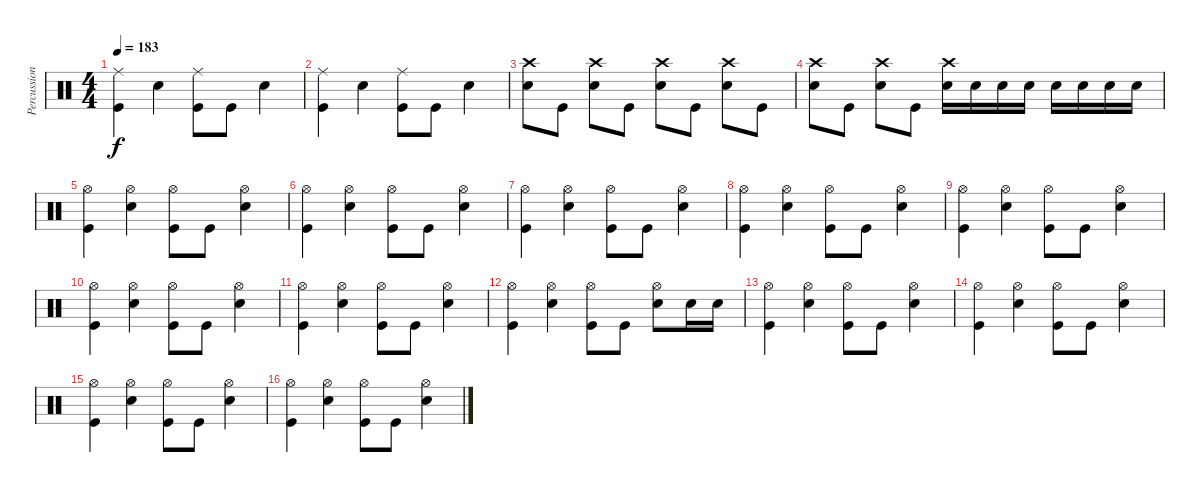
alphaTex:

\track ("Percussion" "Percussion") {instrument percussion}
\staff {score}
\articulation defaults
\ts (4 4)
\tempo 183
\clef neutral
\ks c
("Ride (middle)" "Kick (hit)").4{dy f} "Electric Snare (hit)".4 ("Ride (middle)" "Kick (hit)").8 "Kick (hit)".8 "Electric Snare (hit)".4 |
("Ride (middle)" "Kick (hit)").4 "Electric Snare (hit)".4 ("Ride (middle)" "Kick (hit)").8 "Kick (hit)".8 "Electric Snare (hit)".4 |
("Crash high (hit)" "Electric Snare (hit)").8 "Kick (hit)".8 ("Crash high (hit)" "Electric Snare (hit)").8 "Kick (hit)".8 ("Crash high (hit)" "Electric Snare (hit)").8 "Kick (hit)".8 ("Crash high (hit)" "Electric Snare (hit)").8 "Kick (hit)".8 |
("Crash high (hit)" "Electric Snare (hit)").8 "Kick (hit)".8 ("Crash high (hit)" "Electric Snare (hit)").8 "Kick (hit)".8 ("Crash high (hit)" "Electric Snare (hit)").16 "Electric Snare (hit)".16 "Electric Snare (hit)".16 "Electric Snare (hit)".16 "Electric Snare (hit)".16 "Electric Snare (hit)".16 "Electric Snare (hit)".16 "Electric Snare (hit)".16 |
("Hi-Hat (open)" "Kick (hit)").4 ("Hi-Hat (open)" "Electric Snare (hit)").4 ("Hi-Hat (open)" "Kick (hit)").8 "Kick (hit)".8 ("Hi-Hat (open)" "Electric Snare (hit)").4 |
("Hi-Hat (open)" "Kick (hit)").4 ("Hi-Hat (open)" "Electric Snare (hit)").4 ("Hi-Hat (open)" "Kick (hit)").8 "Kick (hit)".8 ("Hi-Hat (open)" "Electric Snare (hit)").4 |
("Hi-Hat (open)" "Kick (hit)").4 ("Hi-Hat (open)" "Electric Snare (hit)").4 ("Hi-Hat (open)" "Kick (hit)").8 "Kick (hit)".8 ("Hi-Hat (open)" "Electric Snare (hit)").4 |
("Hi-Hat (open)" "Kick (hit)").4 ("Hi-Hat (open)" "Electric Snare (hit)").4 ("Hi-Hat (open)" "Kick (hit)").8 "Kick (hit)".8 ("Hi-Hat (open)" "Electric Snare (hit)").4 |
("Hi-Hat (open)" "Kick (hit)").4 ("Hi-Hat (open)" "Electric Snare (hit)").4 ("Hi-Hat (open)" "Kick (hit)").8 "Kick (hit)".8 ("Hi-Hat (open)" "Electric Snare (hit)").4 |
("Hi-Hat (open)" "Kick (hit)").4 ("Hi-Hat (open)" "Electric Snare (hit)").4 ("Hi-Hat (open)" "Kick (hit)").8 "Kick (hit)".8 ("Hi-Hat (open)" "Electric Snare (hit)").4 |
("Hi-Hat (open)" "Kick (hit)").4 ("Hi-Hat (open)" "Electric Snare (hit)").4 ("Hi-Hat (open)" "Kick (hit)").8 "Kick (hit)".8 ("Hi-Hat (open)" "Electric Snare (hit)").4 |
("Hi-Hat (open)" "Kick (hit)").4 ("Hi-Hat (open)" "Electric Snare (hit)").4 ("Hi-Hat (open)" "Kick (hit)").8 "Kick (hit)".8 ("Hi-Hat (open)" "Electric Snare (hit)").8 "Electric Snare (hit)".16 "Electric Snare (hit)".16 |
("Hi-Hat (open)" "Kick (hit)").4 ("Hi-Hat (open)" "Electric Snare (hit)").4 ("Hi-Hat (open)" "Kick (hit)").8 "Kick (hit)".8 ("Hi-Hat (open)" "Electric Snare (hit)").4 |
("Hi-Hat (open)" "Kick (hit)").4 ("Hi-Hat (open)" "Electric Snare (hit)").4 ("Hi-Hat (open)" "Kick (hit)").8 "Kick (hit)".8 ("Hi-Hat (open)" "Electric Snare (hit)").4 |
("Hi-Hat (open)" "Kick (hit)").4 ("Hi-Hat (open)" "Electric Snare (hit)").4 ("Hi-Hat (open)" "Kick (hit)").8 "Kick (hit)".8 ("Hi-Hat (open)" "Electric Snare (hit)").4 |
("Hi-Hat (open)" "Kick (hit)").4 ("Hi-Hat (open)" "Electric Snare (hit)").4 ("Hi-Hat (open)" "Kick (hit)").8 "Kick (hit)".8 ("Hi-Hat (open)" "Electric Snare (hit)").4
